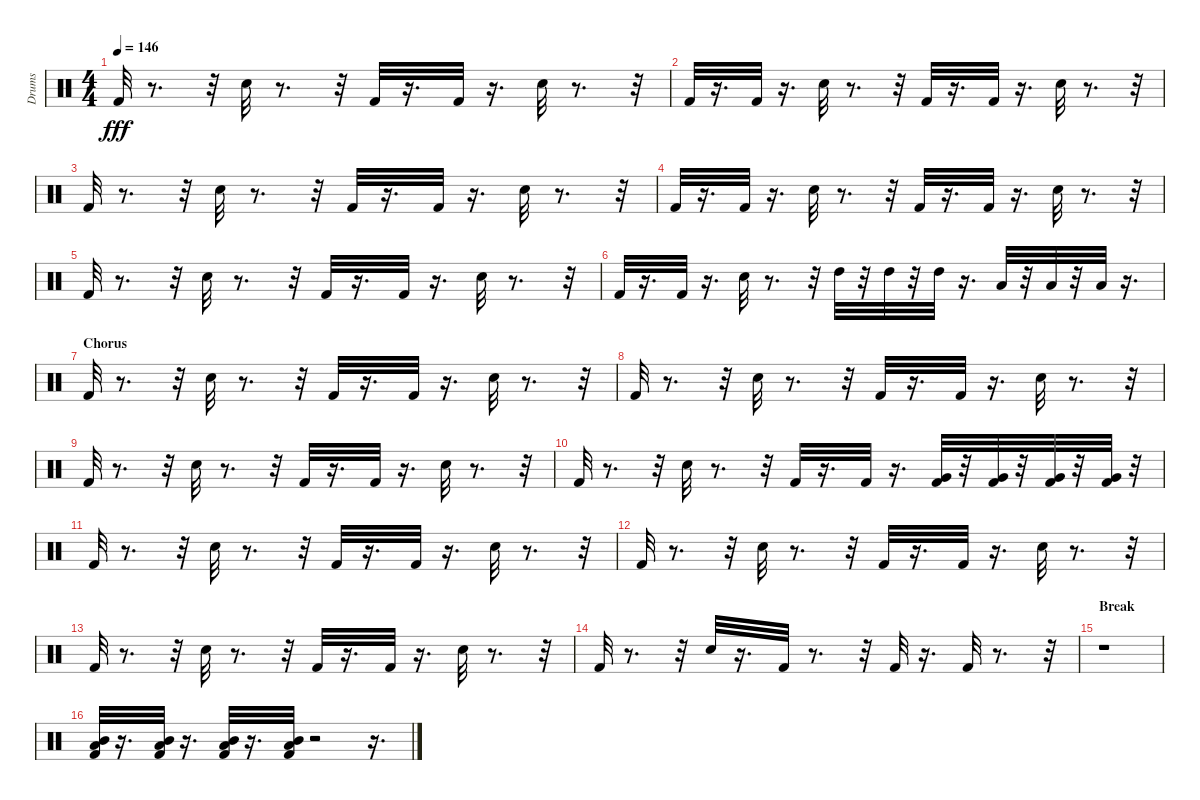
\track ("Drums" "Drums") {instrument percussion}
\staff {score}
\articulation defaults
\ts (4 4)
\tempo 146
\clef neutral
\ks c "Kick (hit) 2".32{dy fff}
r.8{d} r.32 "Snare (hit) 2".32 r.8{d} r.32 "Kick (hit) 2".32 r.16{d} "Kick (hit) 2".32 r.16{d} "Snare (hit) 2".32 r.8{d} r.32 |
"Kick (hit) 2".32 r.16{d} "Kick (hit) 2".32 r.16{d} "Snare (hit) 2".32 r.8{d} r.32 "Kick (hit) 2".32 r.16{d} "Kick (hit) 2".32 r.16{d} "Snare (hit) 2".32 r.8{d} r.32 |
"Kick (hit) 2".32 r.8{d} r.32 "Snare (hit) 2".32 r.8{d} r.32 "Kick (hit) 2".32 r.16{d} "Kick (hit) 2".32 r.16{d} "Snare (hit) 2".32 r.8{d} r.32 |
"Kick (hit) 2".32 r.16{d} "Kick (hit) 2".32 r.16{d} "Snare (hit) 2".32 r.8{d} r.32 "Kick (hit) 2".32 r.16{d} "Kick (hit) 2".32 r.16{d} "Snare (hit) 2".32 r.8{d} r.32 |
"Kick (hit) 2".32 r.8{d} r.32 "Snare (hit) 2".32 r.8{d} r.32 "Kick (hit) 2".32 r.16{d} "Kick (hit) 2".32 r.16{d} "Snare (hit) 2".32 r.8{d} r.32 |
"Kick (hit) 2".32 r.16{d} "Kick (hit) 2".32 r.16{d} "Snare (hit) 2".32 r.8{d} r.32 "High Tom (hit)".32 r.32 "High Tom (hit)".32 r.32 "High Tom (hit)".32 r.16{d} "Low Tom (hit)".32 r.32 "Low Tom (hit)".32 r.32 "Low Tom (hit)".32 r.16{d} |
\section ("" "Chorus")
"Kick (hit) 2".32 r.8{d} r.32 "Snare (hit) 2".32 r.8{d} r.32 "Kick (hit) 2".32 r.16{d} "Kick (hit) 2".32 r.16{d} "Snare (hit) 2".32 r.8{d} r.32 |
"Kick (hit) 2".32 r.8{d} r.32 "Snare (hit) 2".32 r.8{d} r.32 "Kick (hit) 2".32 r.16{d} "Kick (hit) 2".32 r.16{d} "Snare (hit) 2".32 r.8{d} r.32 |
"Kick (hit) 2".32 r.8{d} r.32 "Snare (hit) 2".32 r.8{d} r.32 "Kick (hit) 2".32 r.16{d} "Kick (hit) 2".32 r.16{d} "Snare (hit) 2".32 r.8{d} r.32 |
"Kick (hit) 2".32 r.8{d} r.32 "Snare (hit) 2".32 r.8{d} r.32 "Kick (hit) 2".32 r.16{d} "Kick (hit) 2".32 r.16{d} ("Kick (hit) 2" "Very Low Tom (hit)").32 r.32 ("Kick (hit) 2" "Very Low Tom (hit)").32 r.32 ("Kick (hit) 2" "Very Low Tom (hit)").32 r.32 ("Kick (hit) 2" "Very Low Tom (hit)").32 r.32 |
"Kick (hit) 2".32 r.8{d} r.32 "Snare (hit) 2".32 r.8{d} r.32 "Kick (hit) 2".32 r.16{d} "Kick (hit) 2".32 r.16{d} "Snare (hit) 2".32 r.8{d} r.32 |
"Kick (hit) 2".32 r.8{d} r.32 "Snare (hit) 2".32 r.8{d} r.32 "Kick (hit) 2".32 r.16{d} "Kick (hit) 2".32 r.16{d} "Snare (hit) 2".32 r.8{d} r.32 |
"Kick (hit) 2".32 r.8{d} r.32 "Snare (hit) 2".32 r.8{d} r.32 "Kick (hit) 2".32 r.16{d} "Kick (hit) 2".32 r.16{d} "Snare (hit) 2".32 r.8{d} r.32 |
"Kick (hit) 2".32 r.8{d} r.32 "Snare (hit) 2".32 r.16{d} "Kick (hit) 2".32 r.8{d} r.32 "Kick (hit) 2".32 r.16{d} "Kick (hit) 2".32 r.8{d} r.32 |
\section ("" "Break")
r.1 |
("Kick (hit) 2" "Low Floor Tom (hit)" "Mid Tom (hit)").32 r.16{d} ("Kick (hit) 2" "Low Floor Tom (hit)" "Mid Tom (hit)").32 r.16{d} ("Kick (hit) 2" "Low Floor Tom (hit)" "Mid Tom (hit)").32 r.16{d} ("Kick (hit) 2" "Low Floor Tom (hit)" "Mid Tom (hit)").32 r.2 r.16{d}
